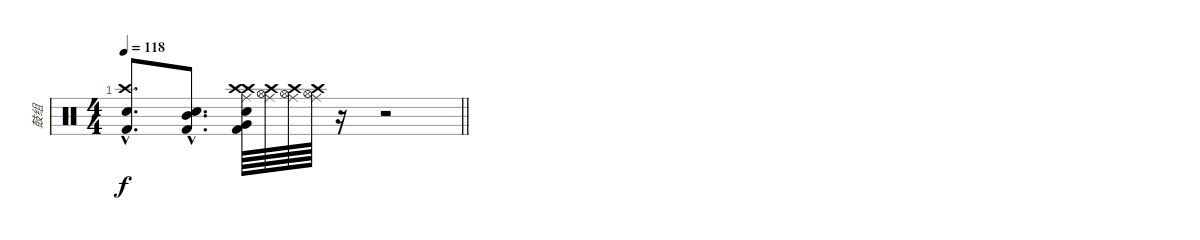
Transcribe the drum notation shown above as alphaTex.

\track ("鼓组" "鼓组") {instrument percussion}
\staff {score}
\articulation defaults
\ts (4 4)
\tempo 118
\clef neutral
\barLineRight lightlight
\ks c
("Snare (hit) 2"{hac} "Crash high (hit)"{hac} "Kick (hit) 2"{hac}).8{d dy f} ("Snare (hit) 2"{hac} "Mid Tom (hit)"{hac} "Kick (hit) 2"{hac}).8{d} ("Ride (middle)" "Snare (hit) 2" "Very Low Tom (hit)" "Crash high (hit)" "Crash high (hit)" "Kick (hit) 2").64 ("Ride (middle)" "Crash high (hit)" "Hi-Hat (open)").64 ("Ride (middle)" "Crash high (hit)" "Hi-Hat (open)").64 ("Ride (middle)" "Crash high (hit)" "Hi-Hat (open)").64 r.16 r.2
